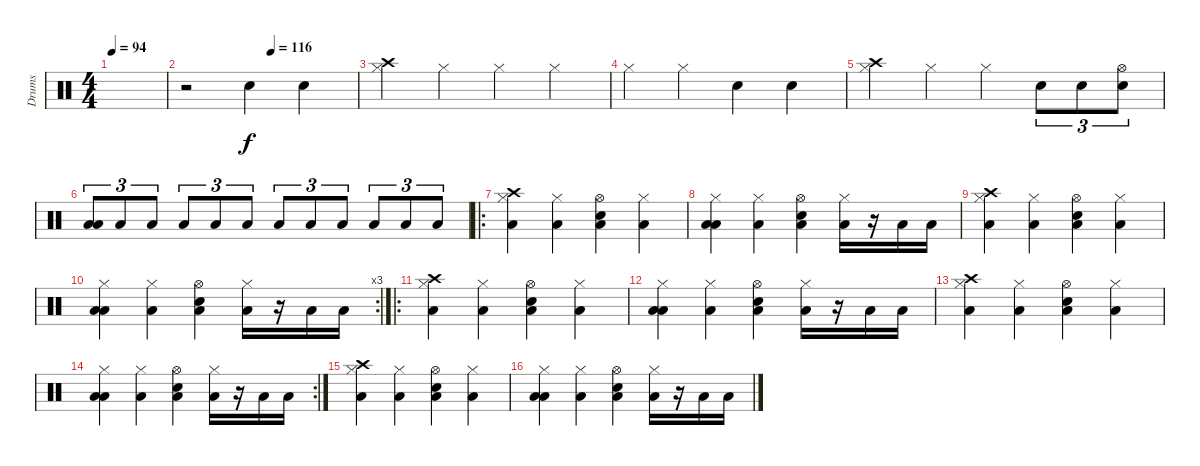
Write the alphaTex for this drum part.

\track ("Drums" "Drums") {instrument percussion}
\staff {score}
\articulation defaults
\ts (4 4)
\tempo 94
\clef neutral
\ks c
|
\tempo (116 0.5)
r.2 "Electric Snare (hit)".4 "Electric Snare (hit)".4 |
("Crash high (hit)" "Hi-Hat (closed)").4 "Hi-Hat (closed)".4 "Hi-Hat (closed)".4 "Hi-Hat (closed)".4 |
"Hi-Hat (closed)".4 "Hi-Hat (closed)".4 "Electric Snare (hit)".4 "Electric Snare (hit)".4 |
("Crash high (hit)" "Hi-Hat (closed)").4 "Hi-Hat (closed)".4 "Hi-Hat (closed)".4 "Snare (hit) 2".8{tu (3 2)} "Snare (hit) 2".8{tu (3 2)} ("Snare (hit) 2" "Hi-Hat (open)").8{tu (3 2)} |
("Low Tom (hit)" "Low Floor Tom (hit)").8{tu (3 2)} "Low Tom (hit)".8{tu (3 2)} "Low Tom (hit)".8{tu (3 2)} "Low Tom (hit)".8{tu (3 2)} "Low Tom (hit)".8{tu (3 2)} "Low Tom (hit)".8{tu (3 2)} "Low Tom (hit)".8{tu (3 2)} "Low Tom (hit)".8{tu (3 2)} "Low Tom (hit)".8{tu (3 2)} "Low Tom (hit)".8{tu (3 2)} "Low Tom (hit)".8{tu (3 2)} "Low Tom (hit)".8{tu (3 2)} |
\ro
("Crash high (hit)" "Hi-Hat (closed)" "Low Floor Tom (hit)").4 ("Hi-Hat (closed)" "Low Floor Tom (hit)").4 ("Snare (hit) 2" "Hi-Hat (open)" "Low Tom (hit)").4 ("Low Floor Tom (hit)" "Hi-Hat (closed)").4 |
("Low Tom (hit)" "Hi-Hat (closed)" "Low Floor Tom (hit)").4 ("Hi-Hat (closed)" "Low Floor Tom (hit)").4 ("Snare (hit) 2" "Hi-Hat (open)" "Low Tom (hit)").4 ("Low Floor Tom (hit)" "Hi-Hat (closed)").16 r.16 "Low Tom (hit)".16 "Low Tom (hit)".16 |
("Crash high (hit)" "Hi-Hat (closed)" "Low Floor Tom (hit)").4 ("Hi-Hat (closed)" "Low Floor Tom (hit)").4 ("Snare (hit) 2" "Hi-Hat (open)" "Low Tom (hit)").4 ("Low Floor Tom (hit)" "Hi-Hat (closed)").4 |
\rc 3
("Low Tom (hit)" "Hi-Hat (closed)" "Low Floor Tom (hit)").4 ("Hi-Hat (closed)" "Low Floor Tom (hit)").4 ("Snare (hit) 2" "Hi-Hat (open)" "Low Tom (hit)").4 ("Low Floor Tom (hit)" "Hi-Hat (closed)").16 r.16 "Low Floor Tom (hit)".16 "Low Floor Tom (hit)".16 |
\ro
("Crash high (hit)" "Hi-Hat (closed)" "Low Floor Tom (hit)").4 ("Hi-Hat (closed)" "Low Floor Tom (hit)").4 ("Snare (hit) 2" "Hi-Hat (open)" "Low Tom (hit)").4 ("Low Floor Tom (hit)" "Hi-Hat (closed)").4 |
("Low Tom (hit)" "Hi-Hat (closed)" "Low Floor Tom (hit)").4 ("Hi-Hat (closed)" "Low Floor Tom (hit)").4 ("Snare (hit) 2" "Hi-Hat (open)" "Low Tom (hit)").4 ("Low Floor Tom (hit)" "Hi-Hat (closed)").16 r.16 "Low Tom (hit)".16 "Low Tom (hit)".16 |
("Crash high (hit)" "Hi-Hat (closed)" "Low Floor Tom (hit)").4 ("Hi-Hat (closed)" "Low Floor Tom (hit)").4 ("Snare (hit) 2" "Hi-Hat (open)" "Low Tom (hit)").4 ("Low Floor Tom (hit)" "Hi-Hat (closed)").4 |
\rc 2
("Low Tom (hit)" "Hi-Hat (closed)" "Low Floor Tom (hit)").4 ("Hi-Hat (closed)" "Low Floor Tom (hit)").4 ("Snare (hit) 2" "Hi-Hat (open)" "Low Tom (hit)").4 ("Low Floor Tom (hit)" "Hi-Hat (closed)").16 r.16 "Low Floor Tom (hit)".16 "Low Floor Tom (hit)".16 |
("Crash high (hit)" "Hi-Hat (closed)" "Low Floor Tom (hit)").4 ("Hi-Hat (closed)" "Low Floor Tom (hit)").4 ("Snare (hit) 2" "Hi-Hat (open)" "Low Tom (hit)").4 ("Low Floor Tom (hit)" "Hi-Hat (closed)").4 |
("Low Tom (hit)" "Hi-Hat (closed)" "Low Floor Tom (hit)").4 ("Hi-Hat (closed)" "Low Floor Tom (hit)").4 ("Snare (hit) 2" "Hi-Hat (open)" "Low Tom (hit)").4 ("Low Floor Tom (hit)" "Hi-Hat (closed)").16 r.16 "Low Tom (hit)".16 "Low Tom (hit)".16
